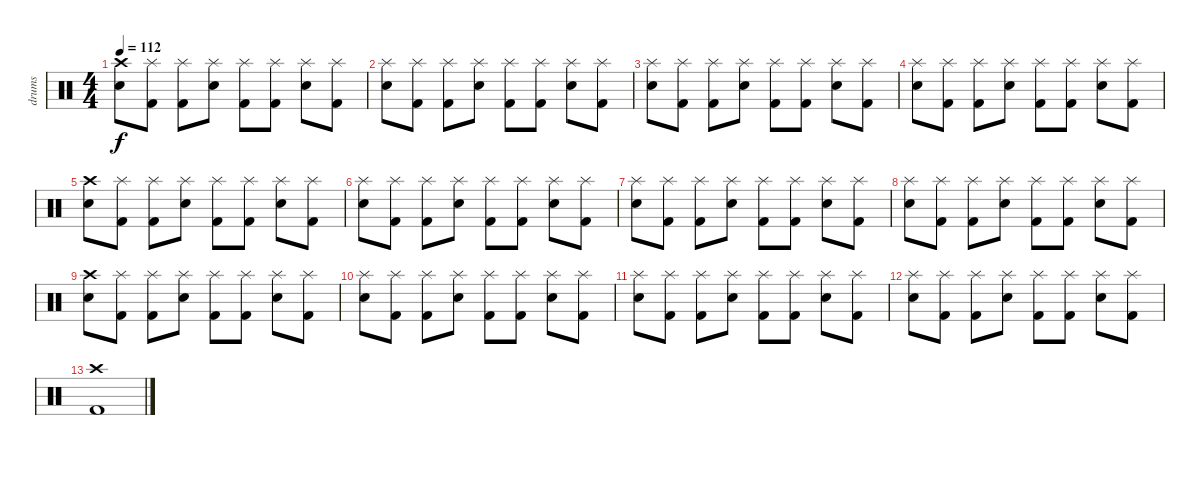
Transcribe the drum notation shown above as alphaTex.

\track ("drums" "drums") {instrument percussion}
\staff {score}
\articulation defaults
\ts (4 4)
\tempo 112
\clef neutral
\ks c
("Crash high (hit)" "Snare (hit) 2").8{dy f} ("Splash (hit)" "Kick (hit) 2").8 ("Splash (hit)" "Kick (hit) 2").8 ("Splash (hit)" "Snare (hit) 2").8 ("Splash (hit)" "Kick (hit) 2").8 ("Splash (hit)" "Kick (hit) 2").8 ("Splash (hit)" "Snare (hit) 2").8 ("Splash (hit)" "Kick (hit) 2").8 |
("Splash (hit)" "Snare (hit) 2").8 ("Splash (hit)" "Kick (hit) 2").8 ("Splash (hit)" "Kick (hit) 2").8 ("Splash (hit)" "Snare (hit) 2").8 ("Splash (hit)" "Kick (hit) 2").8 ("Splash (hit)" "Kick (hit) 2").8 ("Splash (hit)" "Snare (hit) 2").8 ("Splash (hit)" "Kick (hit) 2").8 |
("Splash (hit)" "Snare (hit) 2").8 ("Splash (hit)" "Kick (hit) 2").8 ("Splash (hit)" "Kick (hit) 2").8 ("Splash (hit)" "Snare (hit) 2").8 ("Splash (hit)" "Kick (hit) 2").8 ("Splash (hit)" "Kick (hit) 2").8 ("Splash (hit)" "Snare (hit) 2").8 ("Splash (hit)" "Kick (hit) 2").8 |
("Splash (hit)" "Snare (hit) 2").8 ("Splash (hit)" "Kick (hit) 2").8 ("Splash (hit)" "Kick (hit) 2").8 ("Splash (hit)" "Snare (hit) 2").8 ("Splash (hit)" "Kick (hit) 2").8 ("Splash (hit)" "Kick (hit) 2").8 ("Splash (hit)" "Snare (hit) 2").8 ("Splash (hit)" "Kick (hit) 2").8 |
("Crash high (hit)" "Snare (hit) 2").8 ("Splash (hit)" "Kick (hit) 2").8 ("Splash (hit)" "Kick (hit) 2").8 ("Splash (hit)" "Snare (hit) 2").8 ("Splash (hit)" "Kick (hit) 2").8 ("Splash (hit)" "Kick (hit) 2").8 ("Splash (hit)" "Snare (hit) 2").8 ("Splash (hit)" "Kick (hit) 2").8 |
("Splash (hit)" "Snare (hit) 2").8 ("Splash (hit)" "Kick (hit) 2").8 ("Splash (hit)" "Kick (hit) 2").8 ("Splash (hit)" "Snare (hit) 2").8 ("Splash (hit)" "Kick (hit) 2").8 ("Splash (hit)" "Kick (hit) 2").8 ("Splash (hit)" "Snare (hit) 2").8 ("Splash (hit)" "Kick (hit) 2").8 |
("Splash (hit)" "Snare (hit) 2").8 ("Splash (hit)" "Kick (hit) 2").8 ("Splash (hit)" "Kick (hit) 2").8 ("Splash (hit)" "Snare (hit) 2").8 ("Splash (hit)" "Kick (hit) 2").8 ("Splash (hit)" "Kick (hit) 2").8 ("Splash (hit)" "Snare (hit) 2").8 ("Splash (hit)" "Kick (hit) 2").8 |
("Splash (hit)" "Snare (hit) 2").8 ("Splash (hit)" "Kick (hit) 2").8 ("Splash (hit)" "Kick (hit) 2").8 ("Splash (hit)" "Snare (hit) 2").8 ("Splash (hit)" "Kick (hit) 2").8 ("Splash (hit)" "Kick (hit) 2").8 ("Splash (hit)" "Snare (hit) 2").8 ("Splash (hit)" "Kick (hit) 2").8 |
("Crash high (hit)" "Snare (hit) 2").8 ("Splash (hit)" "Kick (hit) 2").8 ("Splash (hit)" "Kick (hit) 2").8 ("Splash (hit)" "Snare (hit) 2").8 ("Splash (hit)" "Kick (hit) 2").8 ("Splash (hit)" "Kick (hit) 2").8 ("Splash (hit)" "Snare (hit) 2").8 ("Splash (hit)" "Kick (hit) 2").8 |
("Splash (hit)" "Snare (hit) 2").8 ("Splash (hit)" "Kick (hit) 2").8 ("Splash (hit)" "Kick (hit) 2").8 ("Splash (hit)" "Snare (hit) 2").8 ("Splash (hit)" "Kick (hit) 2").8 ("Splash (hit)" "Kick (hit) 2").8 ("Splash (hit)" "Snare (hit) 2").8 ("Splash (hit)" "Kick (hit) 2").8 |
("Splash (hit)" "Snare (hit) 2").8 ("Splash (hit)" "Kick (hit) 2").8 ("Splash (hit)" "Kick (hit) 2").8 ("Splash (hit)" "Snare (hit) 2").8 ("Splash (hit)" "Kick (hit) 2").8 ("Splash (hit)" "Kick (hit) 2").8 ("Splash (hit)" "Snare (hit) 2").8 ("Splash (hit)" "Kick (hit) 2").8 |
("Splash (hit)" "Snare (hit) 2").8 ("Splash (hit)" "Kick (hit) 2").8 ("Splash (hit)" "Kick (hit) 2").8 ("Splash (hit)" "Snare (hit) 2").8 ("Splash (hit)" "Kick (hit) 2").8 ("Splash (hit)" "Kick (hit) 2").8 ("Splash (hit)" "Snare (hit) 2").8 ("Splash (hit)" "Kick (hit) 2").8 |
("Crash high (hit)" "Kick (hit) 2").1
